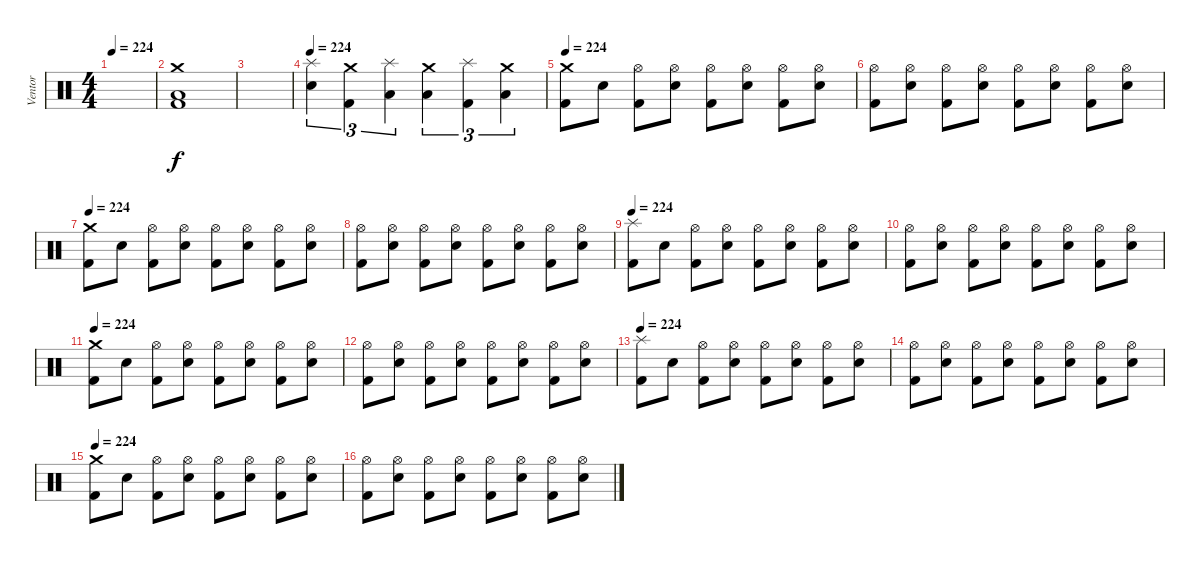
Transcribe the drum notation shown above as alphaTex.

\track ("Ventor" "Ventor") {instrument percussion}
\staff {score}
\articulation defaults
\ts (4 4)
\tempo 224
\clef neutral
\ks c
|
("Crash medium (hit)" "Low Floor Tom (hit)" "Kick (hit) 2").1 |
|
\tempo 224
("Splash (hit)" "Electric Snare (hit)").4{tu (3 2)} ("Crash medium (hit)" "Kick (hit) 2").4{tu (3 2)} ("Splash (hit)" "Low Tom (hit)").4{tu (3 2)} ("Crash medium (hit)" "Low Floor Tom (hit)").4{tu (3 2)} ("Splash (hit)" "Kick (hit) 2").4{tu (3 2)} ("Crash medium (hit)" "Low Floor Tom (hit)").4{tu (3 2)} |
\tempo 224
("Crash medium (hit)" "Kick (hit) 2").8 "Electric Snare (hit)".8 ("Hi-Hat (open)" "Kick (hit) 2").8 ("Hi-Hat (open)" "Electric Snare (hit)").8 ("Hi-Hat (open)" "Kick (hit) 2").8 ("Hi-Hat (open)" "Electric Snare (hit)").8 ("Hi-Hat (open)" "Kick (hit) 2").8 ("Hi-Hat (open)" "Electric Snare (hit)").8 |
("Hi-Hat (open)" "Kick (hit) 2").8 ("Hi-Hat (open)" "Electric Snare (hit)").8 ("Hi-Hat (open)" "Kick (hit) 2").8 ("Hi-Hat (open)" "Electric Snare (hit)").8 ("Hi-Hat (open)" "Kick (hit) 2").8 ("Hi-Hat (open)" "Electric Snare (hit)").8 ("Hi-Hat (open)" "Kick (hit) 2").8 ("Hi-Hat (open)" "Electric Snare (hit)").8 |
\tempo 224
("Crash medium (hit)" "Kick (hit) 2").8 "Electric Snare (hit)".8 ("Hi-Hat (open)" "Kick (hit) 2").8 ("Hi-Hat (open)" "Electric Snare (hit)").8 ("Hi-Hat (open)" "Kick (hit) 2").8 ("Hi-Hat (open)" "Electric Snare (hit)").8 ("Hi-Hat (open)" "Kick (hit) 2").8 ("Hi-Hat (open)" "Electric Snare (hit)").8 |
("Hi-Hat (open)" "Kick (hit) 2").8 ("Hi-Hat (open)" "Electric Snare (hit)").8 ("Hi-Hat (open)" "Kick (hit) 2").8 ("Hi-Hat (open)" "Electric Snare (hit)").8 ("Hi-Hat (open)" "Kick (hit) 2").8 ("Hi-Hat (open)" "Electric Snare (hit)").8 ("Hi-Hat (open)" "Kick (hit) 2").8 ("Hi-Hat (open)" "Electric Snare (hit)").8 |
\tempo 224
("Splash (hit)" "Kick (hit) 2").8 "Electric Snare (hit)".8 ("Hi-Hat (open)" "Kick (hit) 2").8 ("Hi-Hat (open)" "Electric Snare (hit)").8 ("Hi-Hat (open)" "Kick (hit) 2").8 ("Hi-Hat (open)" "Electric Snare (hit)").8 ("Hi-Hat (open)" "Kick (hit) 2").8 ("Hi-Hat (open)" "Electric Snare (hit)").8 |
("Hi-Hat (open)" "Kick (hit) 2").8 ("Hi-Hat (open)" "Electric Snare (hit)").8 ("Hi-Hat (open)" "Kick (hit) 2").8 ("Hi-Hat (open)" "Electric Snare (hit)").8 ("Hi-Hat (open)" "Kick (hit) 2").8 ("Hi-Hat (open)" "Electric Snare (hit)").8 ("Hi-Hat (open)" "Kick (hit) 2").8 ("Hi-Hat (open)" "Electric Snare (hit)").8 |
\tempo 224
("Crash medium (hit)" "Kick (hit) 2").8 "Electric Snare (hit)".8 ("Hi-Hat (open)" "Kick (hit) 2").8 ("Hi-Hat (open)" "Electric Snare (hit)").8 ("Hi-Hat (open)" "Kick (hit) 2").8 ("Hi-Hat (open)" "Electric Snare (hit)").8 ("Hi-Hat (open)" "Kick (hit) 2").8 ("Hi-Hat (open)" "Electric Snare (hit)").8 |
("Hi-Hat (open)" "Kick (hit) 2").8 ("Hi-Hat (open)" "Electric Snare (hit)").8 ("Hi-Hat (open)" "Kick (hit) 2").8 ("Hi-Hat (open)" "Electric Snare (hit)").8 ("Hi-Hat (open)" "Kick (hit) 2").8 ("Hi-Hat (open)" "Electric Snare (hit)").8 ("Hi-Hat (open)" "Kick (hit) 2").8 ("Hi-Hat (open)" "Electric Snare (hit)").8 |
\tempo 224
("Splash (hit)" "Kick (hit) 2").8 "Electric Snare (hit)".8 ("Hi-Hat (open)" "Kick (hit) 2").8 ("Hi-Hat (open)" "Electric Snare (hit)").8 ("Hi-Hat (open)" "Kick (hit) 2").8 ("Hi-Hat (open)" "Electric Snare (hit)").8 ("Hi-Hat (open)" "Kick (hit) 2").8 ("Hi-Hat (open)" "Electric Snare (hit)").8 |
("Hi-Hat (open)" "Kick (hit) 2").8 ("Hi-Hat (open)" "Electric Snare (hit)").8 ("Hi-Hat (open)" "Kick (hit) 2").8 ("Hi-Hat (open)" "Electric Snare (hit)").8 ("Hi-Hat (open)" "Kick (hit) 2").8 ("Hi-Hat (open)" "Electric Snare (hit)").8 ("Hi-Hat (open)" "Kick (hit) 2").8 ("Hi-Hat (open)" "Electric Snare (hit)").8 |
\tempo 224
("Crash medium (hit)" "Kick (hit) 2").8 "Electric Snare (hit)".8 ("Hi-Hat (open)" "Kick (hit) 2").8 ("Hi-Hat (open)" "Electric Snare (hit)").8 ("Hi-Hat (open)" "Kick (hit) 2").8 ("Hi-Hat (open)" "Electric Snare (hit)").8 ("Hi-Hat (open)" "Kick (hit) 2").8 ("Hi-Hat (open)" "Electric Snare (hit)").8 |
("Hi-Hat (open)" "Kick (hit) 2").8 ("Hi-Hat (open)" "Electric Snare (hit)").8 ("Hi-Hat (open)" "Kick (hit) 2").8 ("Hi-Hat (open)" "Electric Snare (hit)").8 ("Hi-Hat (open)" "Kick (hit) 2").8 ("Hi-Hat (open)" "Electric Snare (hit)").8 ("Hi-Hat (open)" "Kick (hit) 2").8 ("Hi-Hat (open)" "Electric Snare (hit)").8
